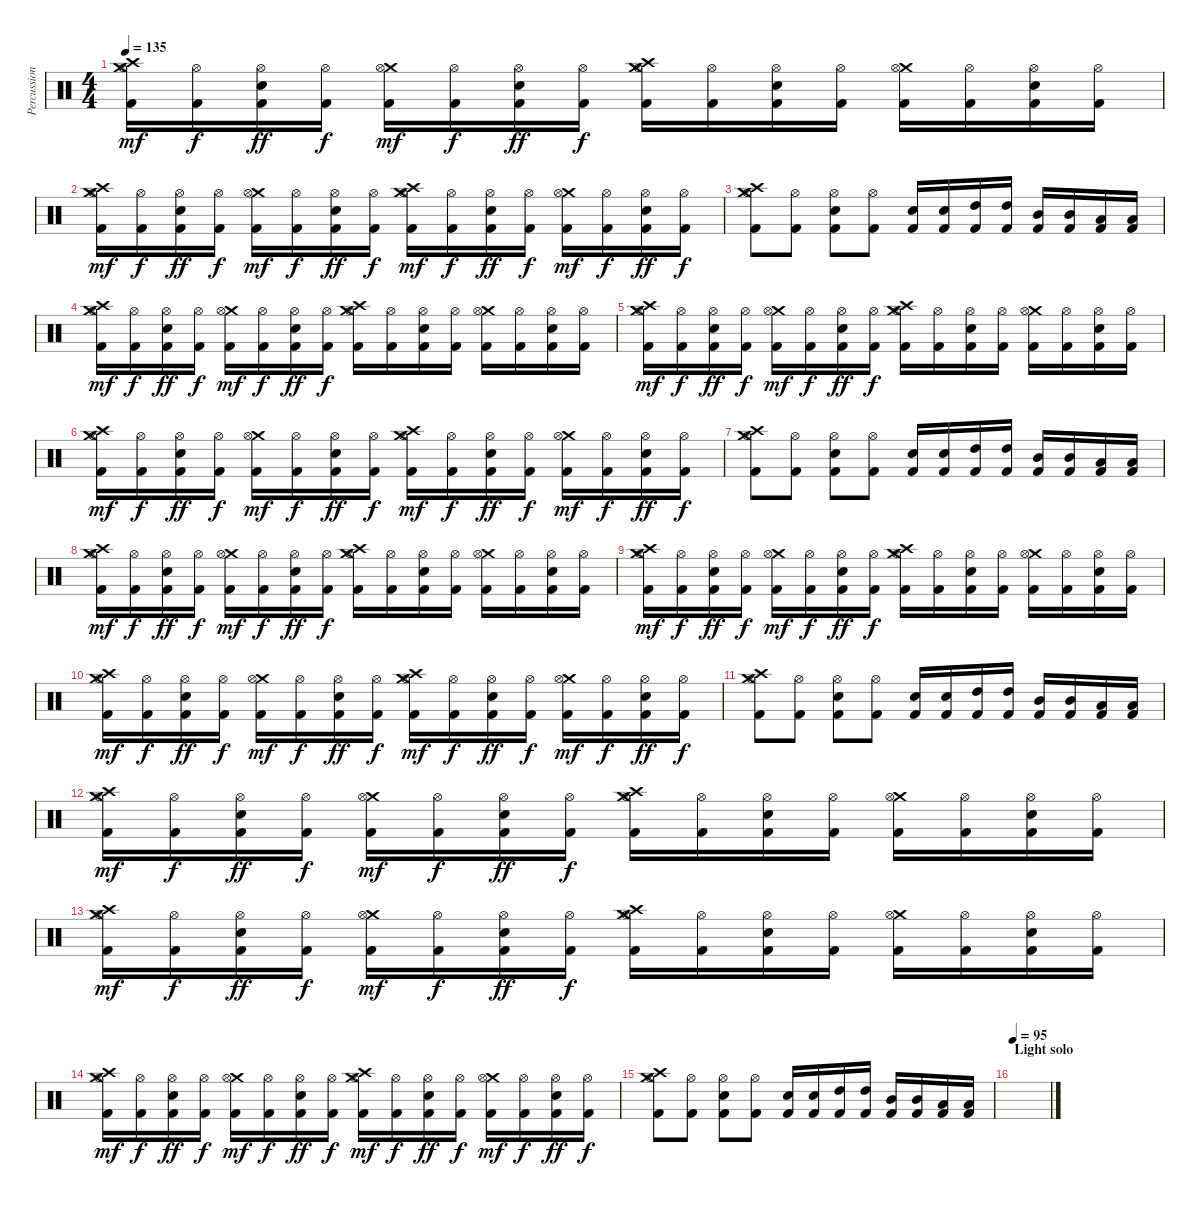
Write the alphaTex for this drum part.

\track ("Percussion" "Percussion") {instrument percussion}
\staff {score}
\articulation defaults
\ts (4 4)
\tempo 135
\clef neutral
\ks c
("Crash high (hit)" "Crash medium (hit)" "Hi-Hat (open)" "Kick (hit) 2").16{dy mf} ("Hi-Hat (open)" "Kick (hit) 2").16{dy f} ("Hi-Hat (open)" "Electric Snare (hit)" "Kick (hit) 2").16{dy ff} ("Hi-Hat (open)" "Kick (hit) 2").16{dy f} ("Crash medium (hit)" "Hi-Hat (open)" "Kick (hit) 2").16{dy mf} ("Hi-Hat (open)" "Kick (hit) 2").16{dy f} ("Hi-Hat (open)" "Electric Snare (hit)" "Kick (hit) 2").16{dy ff} ("Hi-Hat (open)" "Kick (hit) 2").16{dy f} ("Crash high (hit)" "Crash medium (hit)" "Hi-Hat (open)" "Kick (hit) 2").16 ("Hi-Hat (open)" "Kick (hit) 2").16 ("Hi-Hat (open)" "Electric Snare (hit)" "Kick (hit) 2").16 ("Hi-Hat (open)" "Kick (hit) 2").16 ("Crash medium (hit)" "Hi-Hat (open)" "Kick (hit) 2").16 ("Hi-Hat (open)" "Kick (hit) 2").16 ("Hi-Hat (open)" "Electric Snare (hit)" "Kick (hit) 2").16 ("Hi-Hat (open)" "Kick (hit) 2").16 |
("Crash high (hit)" "Crash medium (hit)" "Hi-Hat (open)" "Kick (hit) 2").16{dy mf} ("Hi-Hat (open)" "Kick (hit) 2").16{dy f} ("Hi-Hat (open)" "Electric Snare (hit)" "Kick (hit) 2").16{dy ff} ("Hi-Hat (open)" "Kick (hit) 2").16{dy f} ("Crash medium (hit)" "Hi-Hat (open)" "Kick (hit) 2").16{dy mf} ("Hi-Hat (open)" "Kick (hit) 2").16{dy f} ("Hi-Hat (open)" "Electric Snare (hit)" "Kick (hit) 2").16{dy ff} ("Hi-Hat (open)" "Kick (hit) 2").16{dy f} ("Crash high (hit)" "Crash medium (hit)" "Hi-Hat (open)" "Kick (hit) 2").16{dy mf} ("Hi-Hat (open)" "Kick (hit) 2").16{dy f} ("Hi-Hat (open)" "Electric Snare (hit)" "Kick (hit) 2").16{dy ff} ("Hi-Hat (open)" "Kick (hit) 2").16{dy f} ("Crash medium (hit)" "Hi-Hat (open)" "Kick (hit) 2").16{dy mf} ("Hi-Hat (open)" "Kick (hit) 2").16{dy f} ("Hi-Hat (open)" "Electric Snare (hit)" "Kick (hit) 2").16{dy ff} ("Hi-Hat (open)" "Kick (hit) 2").16{dy f} |
("Crash high (hit)" "Crash medium (hit)" "Hi-Hat (open)" "Kick (hit) 2").8 ("Hi-Hat (open)" "Kick (hit) 2").8 ("Hi-Hat (open)" "Electric Snare (hit)" "Kick (hit) 2").8 ("Hi-Hat (open)" "Kick (hit) 2").8 ("Electric Snare (hit)" "Kick (hit) 2").16 ("Electric Snare (hit)" "Kick (hit) 2").16 ("High Tom (hit)" "Kick (hit) 2").16 ("High Tom (hit)" "Kick (hit) 2").16 ("Mid Tom (hit)" "Kick (hit) 2").16 ("Mid Tom (hit)" "Kick (hit) 2").16 ("Low Tom (hit)" "Kick (hit) 2").16 ("Low Tom (hit)" "Kick (hit) 2").16 |
("Crash high (hit)" "Crash medium (hit)" "Hi-Hat (open)" "Kick (hit) 2").16{dy mf} ("Hi-Hat (open)" "Kick (hit) 2").16{dy f} ("Hi-Hat (open)" "Electric Snare (hit)" "Kick (hit) 2").16{dy ff} ("Hi-Hat (open)" "Kick (hit) 2").16{dy f} ("Crash medium (hit)" "Hi-Hat (open)" "Kick (hit) 2").16{dy mf} ("Hi-Hat (open)" "Kick (hit) 2").16{dy f} ("Hi-Hat (open)" "Electric Snare (hit)" "Kick (hit) 2").16{dy ff} ("Hi-Hat (open)" "Kick (hit) 2").16{dy f} ("Crash high (hit)" "Crash medium (hit)" "Hi-Hat (open)" "Kick (hit) 2").16 ("Hi-Hat (open)" "Kick (hit) 2").16 ("Hi-Hat (open)" "Electric Snare (hit)" "Kick (hit) 2").16 ("Hi-Hat (open)" "Kick (hit) 2").16 ("Crash medium (hit)" "Hi-Hat (open)" "Kick (hit) 2").16 ("Hi-Hat (open)" "Kick (hit) 2").16 ("Hi-Hat (open)" "Electric Snare (hit)" "Kick (hit) 2").16 ("Hi-Hat (open)" "Kick (hit) 2").16 |
("Crash high (hit)" "Crash medium (hit)" "Hi-Hat (open)" "Kick (hit) 2").16{dy mf} ("Hi-Hat (open)" "Kick (hit) 2").16{dy f} ("Hi-Hat (open)" "Electric Snare (hit)" "Kick (hit) 2").16{dy ff} ("Hi-Hat (open)" "Kick (hit) 2").16{dy f} ("Crash medium (hit)" "Hi-Hat (open)" "Kick (hit) 2").16{dy mf} ("Hi-Hat (open)" "Kick (hit) 2").16{dy f} ("Hi-Hat (open)" "Electric Snare (hit)" "Kick (hit) 2").16{dy ff} ("Hi-Hat (open)" "Kick (hit) 2").16{dy f} ("Crash high (hit)" "Crash medium (hit)" "Hi-Hat (open)" "Kick (hit) 2").16 ("Hi-Hat (open)" "Kick (hit) 2").16 ("Hi-Hat (open)" "Electric Snare (hit)" "Kick (hit) 2").16 ("Hi-Hat (open)" "Kick (hit) 2").16 ("Crash medium (hit)" "Hi-Hat (open)" "Kick (hit) 2").16 ("Hi-Hat (open)" "Kick (hit) 2").16 ("Hi-Hat (open)" "Electric Snare (hit)" "Kick (hit) 2").16 ("Hi-Hat (open)" "Kick (hit) 2").16 |
("Crash high (hit)" "Crash medium (hit)" "Hi-Hat (open)" "Kick (hit) 2").16{dy mf} ("Hi-Hat (open)" "Kick (hit) 2").16{dy f} ("Hi-Hat (open)" "Electric Snare (hit)" "Kick (hit) 2").16{dy ff} ("Hi-Hat (open)" "Kick (hit) 2").16{dy f} ("Crash medium (hit)" "Hi-Hat (open)" "Kick (hit) 2").16{dy mf} ("Hi-Hat (open)" "Kick (hit) 2").16{dy f} ("Hi-Hat (open)" "Electric Snare (hit)" "Kick (hit) 2").16{dy ff} ("Hi-Hat (open)" "Kick (hit) 2").16{dy f} ("Crash high (hit)" "Crash medium (hit)" "Hi-Hat (open)" "Kick (hit) 2").16{dy mf} ("Hi-Hat (open)" "Kick (hit) 2").16{dy f} ("Hi-Hat (open)" "Electric Snare (hit)" "Kick (hit) 2").16{dy ff} ("Hi-Hat (open)" "Kick (hit) 2").16{dy f} ("Crash medium (hit)" "Hi-Hat (open)" "Kick (hit) 2").16{dy mf} ("Hi-Hat (open)" "Kick (hit) 2").16{dy f} ("Hi-Hat (open)" "Electric Snare (hit)" "Kick (hit) 2").16{dy ff} ("Hi-Hat (open)" "Kick (hit) 2").16{dy f} |
("Crash high (hit)" "Crash medium (hit)" "Hi-Hat (open)" "Kick (hit) 2").8 ("Hi-Hat (open)" "Kick (hit) 2").8 ("Hi-Hat (open)" "Electric Snare (hit)" "Kick (hit) 2").8 ("Hi-Hat (open)" "Kick (hit) 2").8 ("Electric Snare (hit)" "Kick (hit) 2").16 ("Electric Snare (hit)" "Kick (hit) 2").16 ("High Tom (hit)" "Kick (hit) 2").16 ("High Tom (hit)" "Kick (hit) 2").16 ("Mid Tom (hit)" "Kick (hit) 2").16 ("Mid Tom (hit)" "Kick (hit) 2").16 ("Low Tom (hit)" "Kick (hit) 2").16 ("Low Tom (hit)" "Kick (hit) 2").16 |
("Crash high (hit)" "Crash medium (hit)" "Hi-Hat (open)" "Kick (hit) 2").16{dy mf} ("Hi-Hat (open)" "Kick (hit) 2").16{dy f} ("Hi-Hat (open)" "Electric Snare (hit)" "Kick (hit) 2").16{dy ff} ("Hi-Hat (open)" "Kick (hit) 2").16{dy f} ("Crash medium (hit)" "Hi-Hat (open)" "Kick (hit) 2").16{dy mf} ("Hi-Hat (open)" "Kick (hit) 2").16{dy f} ("Hi-Hat (open)" "Electric Snare (hit)" "Kick (hit) 2").16{dy ff} ("Hi-Hat (open)" "Kick (hit) 2").16{dy f} ("Crash high (hit)" "Crash medium (hit)" "Hi-Hat (open)" "Kick (hit) 2").16 ("Hi-Hat (open)" "Kick (hit) 2").16 ("Hi-Hat (open)" "Electric Snare (hit)" "Kick (hit) 2").16 ("Hi-Hat (open)" "Kick (hit) 2").16 ("Crash medium (hit)" "Hi-Hat (open)" "Kick (hit) 2").16 ("Hi-Hat (open)" "Kick (hit) 2").16 ("Hi-Hat (open)" "Electric Snare (hit)" "Kick (hit) 2").16 ("Hi-Hat (open)" "Kick (hit) 2").16 |
("Crash high (hit)" "Crash medium (hit)" "Hi-Hat (open)" "Kick (hit) 2").16{dy mf} ("Hi-Hat (open)" "Kick (hit) 2").16{dy f} ("Hi-Hat (open)" "Electric Snare (hit)" "Kick (hit) 2").16{dy ff} ("Hi-Hat (open)" "Kick (hit) 2").16{dy f} ("Crash medium (hit)" "Hi-Hat (open)" "Kick (hit) 2").16{dy mf} ("Hi-Hat (open)" "Kick (hit) 2").16{dy f} ("Hi-Hat (open)" "Electric Snare (hit)" "Kick (hit) 2").16{dy ff} ("Hi-Hat (open)" "Kick (hit) 2").16{dy f} ("Crash high (hit)" "Crash medium (hit)" "Hi-Hat (open)" "Kick (hit) 2").16 ("Hi-Hat (open)" "Kick (hit) 2").16 ("Hi-Hat (open)" "Electric Snare (hit)" "Kick (hit) 2").16 ("Hi-Hat (open)" "Kick (hit) 2").16 ("Crash medium (hit)" "Hi-Hat (open)" "Kick (hit) 2").16 ("Hi-Hat (open)" "Kick (hit) 2").16 ("Hi-Hat (open)" "Electric Snare (hit)" "Kick (hit) 2").16 ("Hi-Hat (open)" "Kick (hit) 2").16 |
("Crash high (hit)" "Crash medium (hit)" "Hi-Hat (open)" "Kick (hit) 2").16{dy mf} ("Hi-Hat (open)" "Kick (hit) 2").16{dy f} ("Hi-Hat (open)" "Electric Snare (hit)" "Kick (hit) 2").16{dy ff} ("Hi-Hat (open)" "Kick (hit) 2").16{dy f} ("Crash medium (hit)" "Hi-Hat (open)" "Kick (hit) 2").16{dy mf} ("Hi-Hat (open)" "Kick (hit) 2").16{dy f} ("Hi-Hat (open)" "Electric Snare (hit)" "Kick (hit) 2").16{dy ff} ("Hi-Hat (open)" "Kick (hit) 2").16{dy f} ("Crash high (hit)" "Crash medium (hit)" "Hi-Hat (open)" "Kick (hit) 2").16{dy mf} ("Hi-Hat (open)" "Kick (hit) 2").16{dy f} ("Hi-Hat (open)" "Electric Snare (hit)" "Kick (hit) 2").16{dy ff} ("Hi-Hat (open)" "Kick (hit) 2").16{dy f} ("Crash medium (hit)" "Hi-Hat (open)" "Kick (hit) 2").16{dy mf} ("Hi-Hat (open)" "Kick (hit) 2").16{dy f} ("Hi-Hat (open)" "Electric Snare (hit)" "Kick (hit) 2").16{dy ff} ("Hi-Hat (open)" "Kick (hit) 2").16{dy f} |
("Crash high (hit)" "Crash medium (hit)" "Hi-Hat (open)" "Kick (hit) 2").8 ("Hi-Hat (open)" "Kick (hit) 2").8 ("Hi-Hat (open)" "Electric Snare (hit)" "Kick (hit) 2").8 ("Hi-Hat (open)" "Kick (hit) 2").8 ("Electric Snare (hit)" "Kick (hit) 2").16 ("Electric Snare (hit)" "Kick (hit) 2").16 ("High Tom (hit)" "Kick (hit) 2").16 ("High Tom (hit)" "Kick (hit) 2").16 ("Mid Tom (hit)" "Kick (hit) 2").16 ("Mid Tom (hit)" "Kick (hit) 2").16 ("Low Tom (hit)" "Kick (hit) 2").16 ("Low Tom (hit)" "Kick (hit) 2").16 |
("Crash high (hit)" "Crash medium (hit)" "Hi-Hat (open)" "Kick (hit) 2").16{dy mf} ("Hi-Hat (open)" "Kick (hit) 2").16{dy f} ("Hi-Hat (open)" "Electric Snare (hit)" "Kick (hit) 2").16{dy ff} ("Hi-Hat (open)" "Kick (hit) 2").16{dy f} ("Crash medium (hit)" "Hi-Hat (open)" "Kick (hit) 2").16{dy mf} ("Hi-Hat (open)" "Kick (hit) 2").16{dy f} ("Hi-Hat (open)" "Electric Snare (hit)" "Kick (hit) 2").16{dy ff} ("Hi-Hat (open)" "Kick (hit) 2").16{dy f} ("Crash high (hit)" "Crash medium (hit)" "Hi-Hat (open)" "Kick (hit) 2").16 ("Hi-Hat (open)" "Kick (hit) 2").16 ("Hi-Hat (open)" "Electric Snare (hit)" "Kick (hit) 2").16 ("Hi-Hat (open)" "Kick (hit) 2").16 ("Crash medium (hit)" "Hi-Hat (open)" "Kick (hit) 2").16 ("Hi-Hat (open)" "Kick (hit) 2").16 ("Hi-Hat (open)" "Electric Snare (hit)" "Kick (hit) 2").16 ("Hi-Hat (open)" "Kick (hit) 2").16 |
("Crash high (hit)" "Crash medium (hit)" "Hi-Hat (open)" "Kick (hit) 2").16{dy mf} ("Hi-Hat (open)" "Kick (hit) 2").16{dy f} ("Hi-Hat (open)" "Electric Snare (hit)" "Kick (hit) 2").16{dy ff} ("Hi-Hat (open)" "Kick (hit) 2").16{dy f} ("Crash medium (hit)" "Hi-Hat (open)" "Kick (hit) 2").16{dy mf} ("Hi-Hat (open)" "Kick (hit) 2").16{dy f} ("Hi-Hat (open)" "Electric Snare (hit)" "Kick (hit) 2").16{dy ff} ("Hi-Hat (open)" "Kick (hit) 2").16{dy f} ("Crash high (hit)" "Crash medium (hit)" "Hi-Hat (open)" "Kick (hit) 2").16 ("Hi-Hat (open)" "Kick (hit) 2").16 ("Hi-Hat (open)" "Electric Snare (hit)" "Kick (hit) 2").16 ("Hi-Hat (open)" "Kick (hit) 2").16 ("Crash medium (hit)" "Hi-Hat (open)" "Kick (hit) 2").16 ("Hi-Hat (open)" "Kick (hit) 2").16 ("Hi-Hat (open)" "Electric Snare (hit)" "Kick (hit) 2").16 ("Hi-Hat (open)" "Kick (hit) 2").16 |
("Crash high (hit)" "Crash medium (hit)" "Hi-Hat (open)" "Kick (hit) 2").16{dy mf} ("Hi-Hat (open)" "Kick (hit) 2").16{dy f} ("Hi-Hat (open)" "Electric Snare (hit)" "Kick (hit) 2").16{dy ff} ("Hi-Hat (open)" "Kick (hit) 2").16{dy f} ("Crash medium (hit)" "Hi-Hat (open)" "Kick (hit) 2").16{dy mf} ("Hi-Hat (open)" "Kick (hit) 2").16{dy f} ("Hi-Hat (open)" "Electric Snare (hit)" "Kick (hit) 2").16{dy ff} ("Hi-Hat (open)" "Kick (hit) 2").16{dy f} ("Crash high (hit)" "Crash medium (hit)" "Hi-Hat (open)" "Kick (hit) 2").16{dy mf} ("Hi-Hat (open)" "Kick (hit) 2").16{dy f} ("Hi-Hat (open)" "Electric Snare (hit)" "Kick (hit) 2").16{dy ff} ("Hi-Hat (open)" "Kick (hit) 2").16{dy f} ("Crash medium (hit)" "Hi-Hat (open)" "Kick (hit) 2").16{dy mf} ("Hi-Hat (open)" "Kick (hit) 2").16{dy f} ("Hi-Hat (open)" "Electric Snare (hit)" "Kick (hit) 2").16{dy ff} ("Hi-Hat (open)" "Kick (hit) 2").16{dy f} |
("Crash high (hit)" "Crash medium (hit)" "Hi-Hat (open)" "Kick (hit) 2").8 ("Hi-Hat (open)" "Kick (hit) 2").8 ("Hi-Hat (open)" "Electric Snare (hit)" "Kick (hit) 2").8 ("Hi-Hat (open)" "Kick (hit) 2").8 ("Electric Snare (hit)" "Kick (hit) 2").16 ("Electric Snare (hit)" "Kick (hit) 2").16 ("High Tom (hit)" "Kick (hit) 2").16 ("High Tom (hit)" "Kick (hit) 2").16 ("Mid Tom (hit)" "Kick (hit) 2").16 ("Mid Tom (hit)" "Kick (hit) 2").16 ("Low Tom (hit)" "Kick (hit) 2").16 ("Low Tom (hit)" "Kick (hit) 2").16 |
\section ("" "Light solo")
\tempo 95
